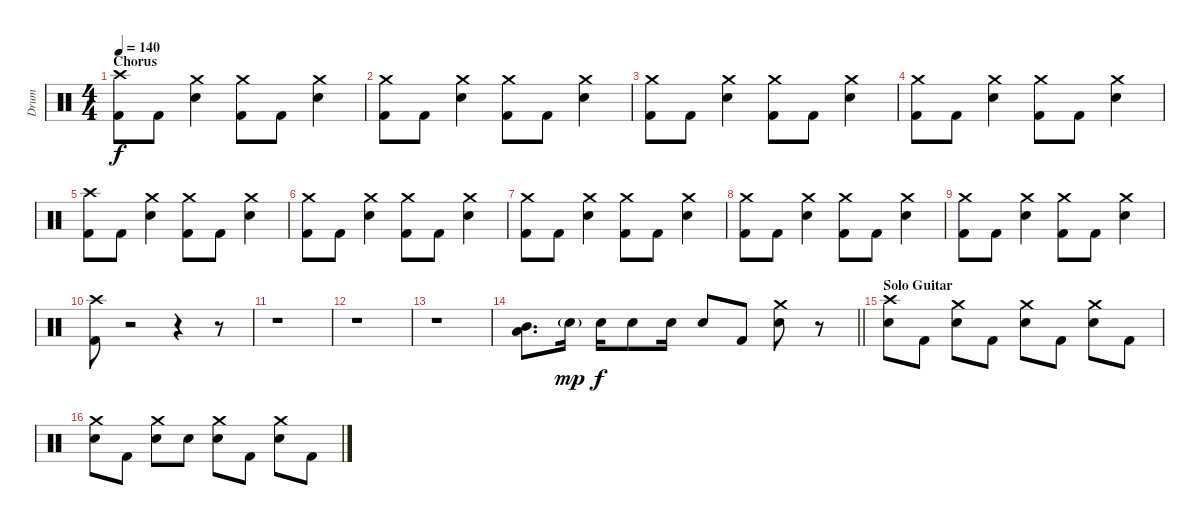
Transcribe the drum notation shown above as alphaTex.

\track ("Drum" "Drum") {instrument percussion}
\staff {score}
\articulation defaults
\ts (4 4)
\section ("" "Chorus")
\tempo 140
\clef neutral
\ks c
("Crash high (hit)" "Kick (hit) 2").8{dy f} "Kick (hit) 2".8 ("Crash medium (hit)" "Electric Snare (hit)").4 ("Crash medium (hit)" "Kick (hit) 2").8 "Kick (hit) 2".8 ("Crash medium (hit)" "Electric Snare (hit)").4 |
("Crash medium (hit)" "Kick (hit) 2").8 "Kick (hit) 2".8 ("Crash medium (hit)" "Electric Snare (hit)").4 ("Crash medium (hit)" "Kick (hit) 2").8 "Kick (hit) 2".8 ("Crash medium (hit)" "Electric Snare (hit)").4 |
("Crash medium (hit)" "Kick (hit) 2").8 "Kick (hit) 2".8 ("Crash medium (hit)" "Electric Snare (hit)").4 ("Crash medium (hit)" "Kick (hit) 2").8 "Kick (hit) 2".8 ("Crash medium (hit)" "Electric Snare (hit)").4 |
("Crash medium (hit)" "Kick (hit) 2").8 "Kick (hit) 2".8 ("Crash medium (hit)" "Electric Snare (hit)").4 ("Crash medium (hit)" "Kick (hit) 2").8 "Kick (hit) 2".8 ("Crash medium (hit)" "Electric Snare (hit)").4 |
("Crash high (hit)" "Kick (hit) 2").8 "Kick (hit) 2".8 ("Crash medium (hit)" "Electric Snare (hit)").4 ("Crash medium (hit)" "Kick (hit) 2").8 "Kick (hit) 2".8 ("Crash medium (hit)" "Electric Snare (hit)").4 |
("Crash medium (hit)" "Kick (hit) 2").8 "Kick (hit) 2".8 ("Crash medium (hit)" "Electric Snare (hit)").4 ("Crash medium (hit)" "Kick (hit) 2").8 "Kick (hit) 2".8 ("Crash medium (hit)" "Electric Snare (hit)").4 |
("Crash medium (hit)" "Kick (hit) 2").8 "Kick (hit) 2".8 ("Crash medium (hit)" "Electric Snare (hit)").4 ("Crash medium (hit)" "Kick (hit) 2").8 "Kick (hit) 2".8 ("Crash medium (hit)" "Electric Snare (hit)").4 |
("Crash medium (hit)" "Kick (hit) 2").8 "Kick (hit) 2".8 ("Crash medium (hit)" "Electric Snare (hit)").4 ("Crash medium (hit)" "Kick (hit) 2").8 "Kick (hit) 2".8 ("Crash medium (hit)" "Electric Snare (hit)").4 |
("Crash medium (hit)" "Kick (hit) 2").8 "Kick (hit) 2".8 ("Crash medium (hit)" "Electric Snare (hit)").4 ("Crash medium (hit)" "Kick (hit) 2").8 "Kick (hit) 2".8 ("Crash medium (hit)" "Electric Snare (hit)").4 |
("Crash high (hit)" "Kick (hit) 2").8 r.2 r.4 r.8 |
r.1 |
r.1 |
r.1 |
\barLineRight lightlight
("Low Tom (hit)" "Mid Tom (hit)").8{d} "Electric Snare (hit)"{g}.16{dy mp} "Electric Snare (hit)".16{dy f} "Electric Snare (hit)".8 "Electric Snare (hit)".16 "Electric Snare (hit)".8 "Kick (hit) 2".8 ("Crash medium (hit)" "Electric Snare (hit)").8 r.8 |
\section ("" "Solo Guitar")
("Crash high (hit)" "Electric Snare (hit)").8 "Kick (hit) 2".8 ("Crash medium (hit)" "Electric Snare (hit)").8 "Kick (hit) 2".8 ("Crash medium (hit)" "Electric Snare (hit)").8 "Kick (hit) 2".8 ("Crash medium (hit)" "Electric Snare (hit)").8 "Kick (hit) 2".8 |
("Crash medium (hit)" "Electric Snare (hit)").8 "Kick (hit) 2".8 ("Crash medium (hit)" "Electric Snare (hit)").8 "Electric Snare (hit)".8 ("Crash medium (hit)" "Electric Snare (hit)").8 "Kick (hit) 2".8 ("Crash medium (hit)" "Electric Snare (hit)").8 "Kick (hit) 2".8
